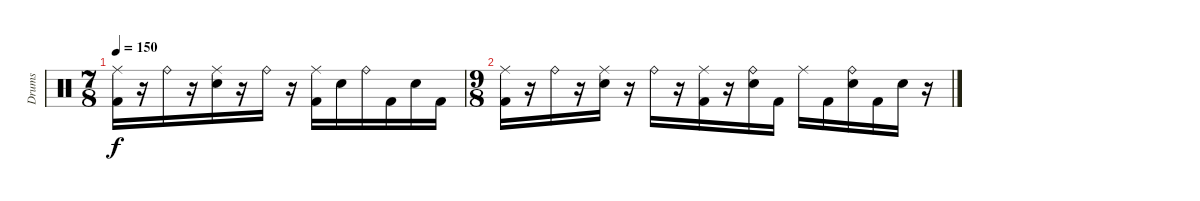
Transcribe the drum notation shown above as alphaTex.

\track ("Drums" "Drums") {instrument percussion}
\staff {score}
\articulation defaults
\ts (7 8)
\tempo 150
\clef neutral
\ks c
("Ride (middle)" "Kick (hit) 2").16{dy f} r.16 "Ride (bell)".16 r.16 ("Ride (middle)" "Electric Snare (hit)").16 r.16 "Ride (bell)".16 r.16 ("Ride (middle)" "Kick (hit) 2").16 "Electric Snare (hit)".16 "Ride (bell)".16 "Kick (hit) 2".16 "Electric Snare (hit)".16 "Kick (hit) 2".16 |
\ts (9 8)
("Ride (middle)" "Kick (hit) 2").16 r.16 "Ride (bell)".16 r.16 ("Ride (middle)" "Electric Snare (hit)").16 r.16 "Ride (bell)".16 r.16 ("Ride (middle)" "Kick (hit) 2").16 r.16 ("Ride (bell)" "Electric Snare (hit)").16 "Kick (hit) 2".16 "Ride (middle)".16 "Kick (hit) 2".16 ("Ride (bell)" "Electric Snare (hit)").16 "Kick (hit) 2".16 "Electric Snare (hit)".16 r.16
